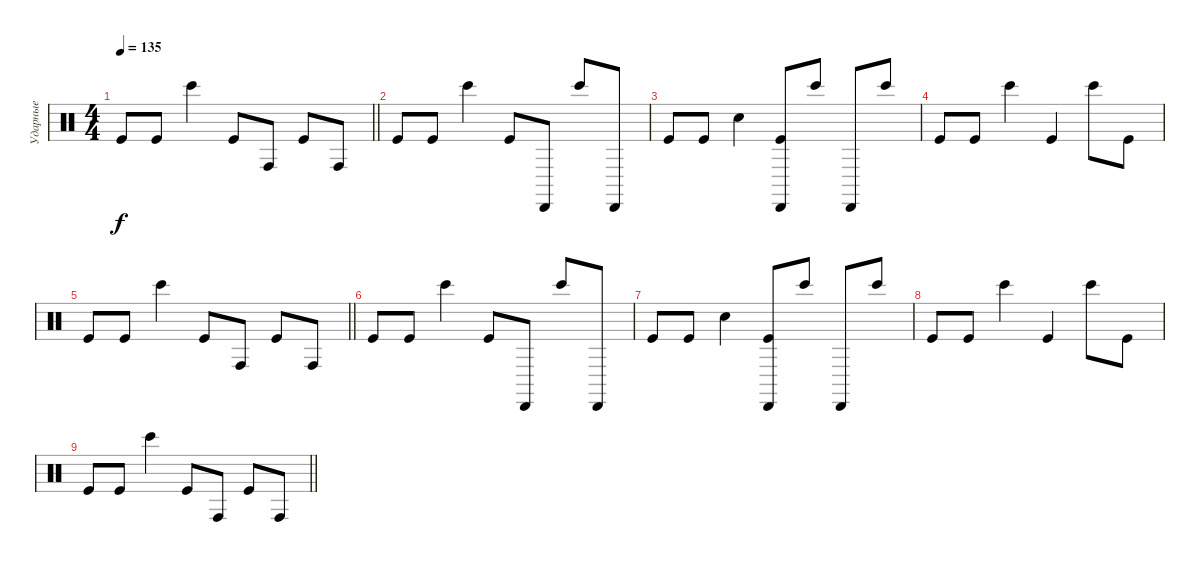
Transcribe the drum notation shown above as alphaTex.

\track ("Ударные" "Ударные") {instrument percussion}
\staff {score}
\articulation defaults
\ts (4 4)
\tempo 135
\clef neutral
\barLineRight lightlight
\ks c "Kick (hit)".8{dy f} "Kick (hit)".8 "Bongo High (hit)".4 "Kick (hit)".8 "Conga high (hit)".8 "Kick (hit)".8 "Conga high (hit)".8
|
"Kick (hit)".8 "Kick (hit)".8 "Bongo High (hit)".4 "Kick (hit)".8 "Cabasa (hit)".8 "Bongo High (hit)".8 "Cabasa (hit)".8 |
"Kick (hit)".8 "Kick (hit)".8 "Hand Clap (hit)".4 ("Kick (hit)" "Cabasa (hit)").8 "Bongo High (hit)".8 "Cabasa (hit)".8 "Bongo High (hit)".8 |
"Kick (hit)".8 "Kick (hit)".8 "Bongo High (hit)".4 "Kick (hit)".4 "Bongo High (hit)".8 "Kick (hit)".8 |
\barLineRight lightlight "Kick (hit)".8 "Kick (hit)".8 "Bongo High (hit)".4 "Kick (hit)".8 "Conga high (hit)".8 "Kick (hit)".8 "Conga high (hit)".8
|
"Kick (hit)".8 "Kick (hit)".8 "Bongo High (hit)".4 "Kick (hit)".8 "Cabasa (hit)".8 "Bongo High (hit)".8 "Cabasa (hit)".8 |
"Kick (hit)".8 "Kick (hit)".8 "Hand Clap (hit)".4 ("Kick (hit)" "Cabasa (hit)").8 "Bongo High (hit)".8 "Cabasa (hit)".8 "Bongo High (hit)".8 |
"Kick (hit)".8 "Kick (hit)".8 "Bongo High (hit)".4 "Kick (hit)".4 "Bongo High (hit)".8 "Kick (hit)".8 |
\barLineRight lightlight "Kick (hit)".8 "Kick (hit)".8 "Bongo High (hit)".4 "Kick (hit)".8 "Conga high (hit)".8 "Kick (hit)".8 "Conga high (hit)".8
